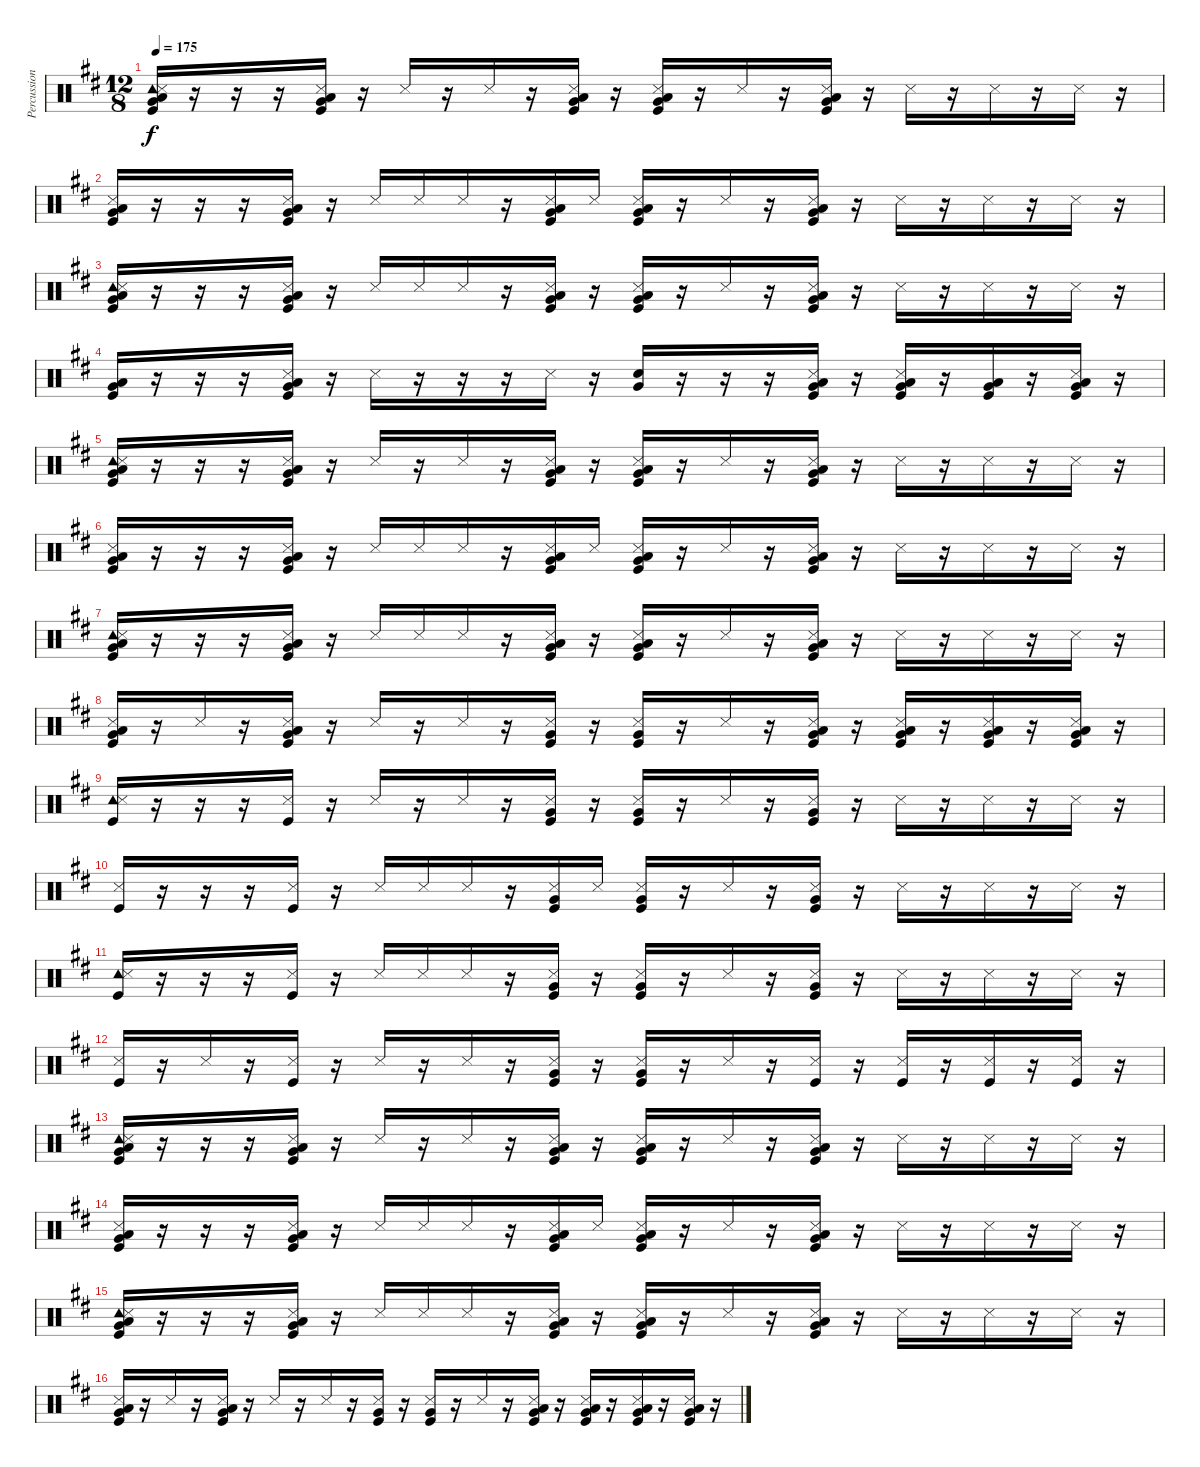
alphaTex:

\track ("Percussion" "Percussion") {instrument percussion}
\staff {score}
\articulation defaults
\ts (12 8)
\tempo 175
\clef neutral
\ks d
("Tambourine (hit)" "Snare (side stick) 3" "Low Floor Tom (hit)" "Very Low Tom (hit)" "Kick (hit)").16{dy f} r.16 r.16 r.16 ("Snare (side stick) 3" "Low Floor Tom (hit)" "Very Low Tom (hit)" "Kick (hit)").16 r.16 "Snare (side stick) 3".16 r.16 "Snare (side stick) 3".16 r.16 ("Snare (side stick) 3" "Low Floor Tom (hit)" "Very Low Tom (hit)" "Kick (hit)").16 r.16 ("Snare (side stick) 3" "Low Floor Tom (hit)" "Very Low Tom (hit)" "Kick (hit)").16 r.16 "Snare (side stick) 3".16 r.16 ("Snare (side stick) 3" "Low Floor Tom (hit)" "Very Low Tom (hit)" "Kick (hit)").16 r.16 "Snare (side stick) 3".16 r.16 "Snare (side stick) 3".16 r.16 "Snare (side stick) 3".16 r.16 |
("Snare (side stick) 3" "Low Floor Tom (hit)" "Very Low Tom (hit)" "Kick (hit)").16 r.16 r.16 r.16 ("Snare (side stick) 3" "Low Floor Tom (hit)" "Very Low Tom (hit)" "Kick (hit)").16 r.16 "Snare (side stick) 3".16 "Snare (side stick) 3".16 "Snare (side stick) 3".16 r.16 ("Snare (side stick) 3" "Low Floor Tom (hit)" "Very Low Tom (hit)" "Kick (hit)").16 "Snare (side stick) 3".16 ("Snare (side stick) 3" "Low Floor Tom (hit)" "Very Low Tom (hit)" "Kick (hit)").16 r.16 "Snare (side stick) 3".16 r.16 ("Snare (side stick) 3" "Low Floor Tom (hit)" "Very Low Tom (hit)" "Kick (hit)").16 r.16 "Snare (side stick) 3".16 r.16 "Snare (side stick) 3".16 r.16 "Snare (side stick) 3".16 r.16 |
("Tambourine (hit)" "Snare (side stick) 3" "Low Floor Tom (hit)" "Very Low Tom (hit)" "Kick (hit)").16 r.16 r.16 r.16 ("Snare (side stick) 3" "Low Floor Tom (hit)" "Very Low Tom (hit)" "Kick (hit)").16 r.16 "Snare (side stick) 3".16 "Snare (side stick) 3".16 "Snare (side stick) 3".16 r.16 ("Snare (side stick) 3" "Low Floor Tom (hit)" "Very Low Tom (hit)" "Kick (hit)").16 r.16 ("Snare (side stick) 3" "Low Floor Tom (hit)" "Very Low Tom (hit)" "Kick (hit)").16 r.16 "Snare (side stick) 3".16 r.16 ("Snare (side stick) 3" "Low Floor Tom (hit)" "Very Low Tom (hit)" "Kick (hit)").16 r.16 "Snare (side stick) 3".16 r.16 "Snare (side stick) 3".16 r.16 "Snare (side stick) 3".16 r.16 |
("Low Floor Tom (hit)" "Very Low Tom (hit)" "Kick (hit)").16 r.16 r.16 r.16 ("Snare (side stick) 3" "Low Floor Tom (hit)" "Very Low Tom (hit)" "Kick (hit)").16 r.16 "Snare (side stick) 3".16 r.16 r.16 r.16 "Snare (side stick) 3".16 r.16 ("Very Low Tom (hit)" "Snare (hit)").16 r.16 r.16 r.16 ("Snare (side stick) 3" "Low Floor Tom (hit)" "Very Low Tom (hit)" "Kick (hit)").16 r.16 ("Snare (side stick) 3" "Low Floor Tom (hit)" "Very Low Tom (hit)" "Kick (hit)").16 r.16 ("Low Floor Tom (hit)" "Very Low Tom (hit)" "Kick (hit)").16 r.16 ("Snare (side stick) 3" "Low Floor Tom (hit)" "Very Low Tom (hit)" "Kick (hit)").16 r.16 |
("Tambourine (hit)" "Snare (side stick) 3" "Low Floor Tom (hit)" "Very Low Tom (hit)" "Kick (hit)").16 r.16 r.16 r.16 ("Snare (side stick) 3" "Low Floor Tom (hit)" "Very Low Tom (hit)" "Kick (hit)").16 r.16 "Snare (side stick) 3".16 r.16 "Snare (side stick) 3".16 r.16 ("Snare (side stick) 3" "Low Floor Tom (hit)" "Very Low Tom (hit)" "Kick (hit)").16 r.16 ("Snare (side stick) 3" "Low Floor Tom (hit)" "Very Low Tom (hit)" "Kick (hit)").16 r.16 "Snare (side stick) 3".16 r.16 ("Snare (side stick) 3" "Low Floor Tom (hit)" "Very Low Tom (hit)" "Kick (hit)").16 r.16 "Snare (side stick) 3".16 r.16 "Snare (side stick) 3".16 r.16 "Snare (side stick) 3".16 r.16 |
("Snare (side stick) 3" "Low Floor Tom (hit)" "Very Low Tom (hit)" "Kick (hit)").16 r.16 r.16 r.16 ("Snare (side stick) 3" "Low Floor Tom (hit)" "Very Low Tom (hit)" "Kick (hit)").16 r.16 "Snare (side stick) 3".16 "Snare (side stick) 3".16 "Snare (side stick) 3".16 r.16 ("Snare (side stick) 3" "Low Floor Tom (hit)" "Very Low Tom (hit)" "Kick (hit)").16 "Snare (side stick) 3".16 ("Snare (side stick) 3" "Low Floor Tom (hit)" "Very Low Tom (hit)" "Kick (hit)").16 r.16 "Snare (side stick) 3".16 r.16 ("Snare (side stick) 3" "Low Floor Tom (hit)" "Very Low Tom (hit)" "Kick (hit)").16 r.16 "Snare (side stick) 3".16 r.16 "Snare (side stick) 3".16 r.16 "Snare (side stick) 3".16 r.16 |
("Tambourine (hit)" "Snare (side stick) 3" "Low Floor Tom (hit)" "Very Low Tom (hit)" "Kick (hit)").16 r.16 r.16 r.16 ("Snare (side stick) 3" "Low Floor Tom (hit)" "Very Low Tom (hit)" "Kick (hit)").16 r.16 "Snare (side stick) 3".16 "Snare (side stick) 3".16 "Snare (side stick) 3".16 r.16 ("Snare (side stick) 3" "Low Floor Tom (hit)" "Very Low Tom (hit)" "Kick (hit)").16 r.16 ("Snare (side stick) 3" "Low Floor Tom (hit)" "Very Low Tom (hit)" "Kick (hit)").16 r.16 "Snare (side stick) 3".16 r.16 ("Snare (side stick) 3" "Low Floor Tom (hit)" "Very Low Tom (hit)" "Kick (hit)").16 r.16 "Snare (side stick) 3".16 r.16 "Snare (side stick) 3".16 r.16 "Snare (side stick) 3".16 r.16 |
("Snare (side stick) 3" "Low Floor Tom (hit)" "Very Low Tom (hit)" "Kick (hit)").16 r.16 "Snare (side stick) 3".16 r.16 ("Snare (side stick) 3" "Low Floor Tom (hit)" "Very Low Tom (hit)" "Kick (hit)").16 r.16 "Snare (side stick) 3".16 r.16 "Snare (side stick) 3".16 r.16 ("Snare (side stick) 3" "Very Low Tom (hit)" "Kick (hit)").16 r.16 ("Snare (side stick) 3" "Very Low Tom (hit)" "Kick (hit)").16 r.16 "Snare (side stick) 3".16 r.16 ("Snare (side stick) 3" "Low Floor Tom (hit)" "Very Low Tom (hit)" "Kick (hit)").16 r.16 ("Snare (side stick) 3" "Low Floor Tom (hit)" "Very Low Tom (hit)" "Kick (hit)").16 r.16 ("Snare (side stick) 3" "Low Floor Tom (hit)" "Very Low Tom (hit)" "Kick (hit)").16 r.16 ("Snare (side stick) 3" "Low Floor Tom (hit)" "Very Low Tom (hit)" "Kick (hit)").16 r.16 |
("Tambourine (hit)" "Snare (side stick) 3" "Kick (hit)").16 r.16 r.16 r.16 ("Snare (side stick) 3" "Kick (hit)").16 r.16 "Snare (side stick) 3".16 r.16 "Snare (side stick) 3".16 r.16 ("Snare (side stick) 3" "Very Low Tom (hit)" "Kick (hit)").16 r.16 ("Snare (side stick) 3" "Very Low Tom (hit)" "Kick (hit)").16 r.16 "Snare (side stick) 3".16 r.16 ("Snare (side stick) 3" "Very Low Tom (hit)" "Kick (hit)").16 r.16 "Snare (side stick) 3".16 r.16 "Snare (side stick) 3".16 r.16 "Snare (side stick) 3".16 r.16 |
("Snare (side stick) 3" "Kick (hit)").16 r.16 r.16 r.16 ("Snare (side stick) 3" "Kick (hit)").16 r.16 "Snare (side stick) 3".16 "Snare (side stick) 3".16 "Snare (side stick) 3".16 r.16 ("Snare (side stick) 3" "Very Low Tom (hit)" "Kick (hit)").16 "Snare (side stick) 3".16 ("Snare (side stick) 3" "Very Low Tom (hit)" "Kick (hit)").16 r.16 "Snare (side stick) 3".16 r.16 ("Snare (side stick) 3" "Very Low Tom (hit)" "Kick (hit)").16 r.16 "Snare (side stick) 3".16 r.16 "Snare (side stick) 3".16 r.16 "Snare (side stick) 3".16 r.16 |
("Tambourine (hit)" "Snare (side stick) 3" "Kick (hit)").16 r.16 r.16 r.16 ("Snare (side stick) 3" "Kick (hit)").16 r.16 "Snare (side stick) 3".16 "Snare (side stick) 3".16 "Snare (side stick) 3".16 r.16 ("Snare (side stick) 3" "Very Low Tom (hit)" "Kick (hit)").16 r.16 ("Snare (side stick) 3" "Very Low Tom (hit)" "Kick (hit)").16 r.16 "Snare (side stick) 3".16 r.16 ("Snare (side stick) 3" "Very Low Tom (hit)" "Kick (hit)").16 r.16 "Snare (side stick) 3".16 r.16 "Snare (side stick) 3".16 r.16 "Snare (side stick) 3".16 r.16 |
("Snare (side stick) 3" "Kick (hit)").16 r.16 "Snare (side stick) 3".16 r.16 ("Snare (side stick) 3" "Kick (hit)").16 r.16 "Snare (side stick) 3".16 r.16 "Snare (side stick) 3".16 r.16 ("Snare (side stick) 3" "Very Low Tom (hit)" "Kick (hit)").16 r.16 ("Snare (side stick) 3" "Very Low Tom (hit)" "Kick (hit)").16 r.16 "Snare (side stick) 3".16 r.16 ("Snare (side stick) 3" "Kick (hit)").16 r.16 ("Snare (side stick) 3" "Kick (hit)").16 r.16 ("Snare (side stick) 3" "Kick (hit)").16 r.16 ("Snare (side stick) 3" "Kick (hit)").16 r.16 |
("Tambourine (hit)" "Snare (side stick) 3" "Low Floor Tom (hit)" "Very Low Tom (hit)" "Kick (hit)").16 r.16 r.16 r.16 ("Snare (side stick) 3" "Low Floor Tom (hit)" "Very Low Tom (hit)" "Kick (hit)").16 r.16 "Snare (side stick) 3".16 r.16 "Snare (side stick) 3".16 r.16 ("Snare (side stick) 3" "Low Floor Tom (hit)" "Very Low Tom (hit)" "Kick (hit)").16 r.16 ("Snare (side stick) 3" "Low Floor Tom (hit)" "Very Low Tom (hit)" "Kick (hit)").16 r.16 "Snare (side stick) 3".16 r.16 ("Snare (side stick) 3" "Low Floor Tom (hit)" "Very Low Tom (hit)" "Kick (hit)").16 r.16 "Snare (side stick) 3".16 r.16 "Snare (side stick) 3".16 r.16 "Snare (side stick) 3".16 r.16 |
("Snare (side stick) 3" "Low Floor Tom (hit)" "Very Low Tom (hit)" "Kick (hit)").16 r.16 r.16 r.16 ("Snare (side stick) 3" "Low Floor Tom (hit)" "Very Low Tom (hit)" "Kick (hit)").16 r.16 "Snare (side stick) 3".16 "Snare (side stick) 3".16 "Snare (side stick) 3".16 r.16 ("Snare (side stick) 3" "Low Floor Tom (hit)" "Very Low Tom (hit)" "Kick (hit)").16 "Snare (side stick) 3".16 ("Snare (side stick) 3" "Low Floor Tom (hit)" "Very Low Tom (hit)" "Kick (hit)").16 r.16 "Snare (side stick) 3".16 r.16 ("Snare (side stick) 3" "Low Floor Tom (hit)" "Very Low Tom (hit)" "Kick (hit)").16 r.16 "Snare (side stick) 3".16 r.16 "Snare (side stick) 3".16 r.16 "Snare (side stick) 3".16 r.16 |
("Tambourine (hit)" "Snare (side stick) 3" "Low Floor Tom (hit)" "Very Low Tom (hit)" "Kick (hit)").16 r.16 r.16 r.16 ("Snare (side stick) 3" "Low Floor Tom (hit)" "Very Low Tom (hit)" "Kick (hit)").16 r.16 "Snare (side stick) 3".16 "Snare (side stick) 3".16 "Snare (side stick) 3".16 r.16 ("Snare (side stick) 3" "Low Floor Tom (hit)" "Very Low Tom (hit)" "Kick (hit)").16 r.16 ("Snare (side stick) 3" "Low Floor Tom (hit)" "Very Low Tom (hit)" "Kick (hit)").16 r.16 "Snare (side stick) 3".16 r.16 ("Snare (side stick) 3" "Low Floor Tom (hit)" "Very Low Tom (hit)" "Kick (hit)").16 r.16 "Snare (side stick) 3".16 r.16 "Snare (side stick) 3".16 r.16 "Snare (side stick) 3".16 r.16 |
("Snare (side stick) 3" "Low Floor Tom (hit)" "Very Low Tom (hit)" "Kick (hit)").16 r.16 "Snare (side stick) 3".16 r.16 ("Snare (side stick) 3" "Low Floor Tom (hit)" "Very Low Tom (hit)" "Kick (hit)").16 r.16 "Snare (side stick) 3".16 r.16 "Snare (side stick) 3".16 r.16 ("Snare (side stick) 3" "Very Low Tom (hit)" "Kick (hit)").16 r.16 ("Snare (side stick) 3" "Very Low Tom (hit)" "Kick (hit)").16 r.16 "Snare (side stick) 3".16 r.16 ("Snare (side stick) 3" "Low Floor Tom (hit)" "Very Low Tom (hit)" "Kick (hit)").16 r.16 ("Snare (side stick) 3" "Low Floor Tom (hit)" "Very Low Tom (hit)" "Kick (hit)").16 r.16 ("Snare (side stick) 3" "Low Floor Tom (hit)" "Very Low Tom (hit)" "Kick (hit)").16 r.16 ("Snare (side stick) 3" "Low Floor Tom (hit)" "Very Low Tom (hit)" "Kick (hit)").16 r.16
